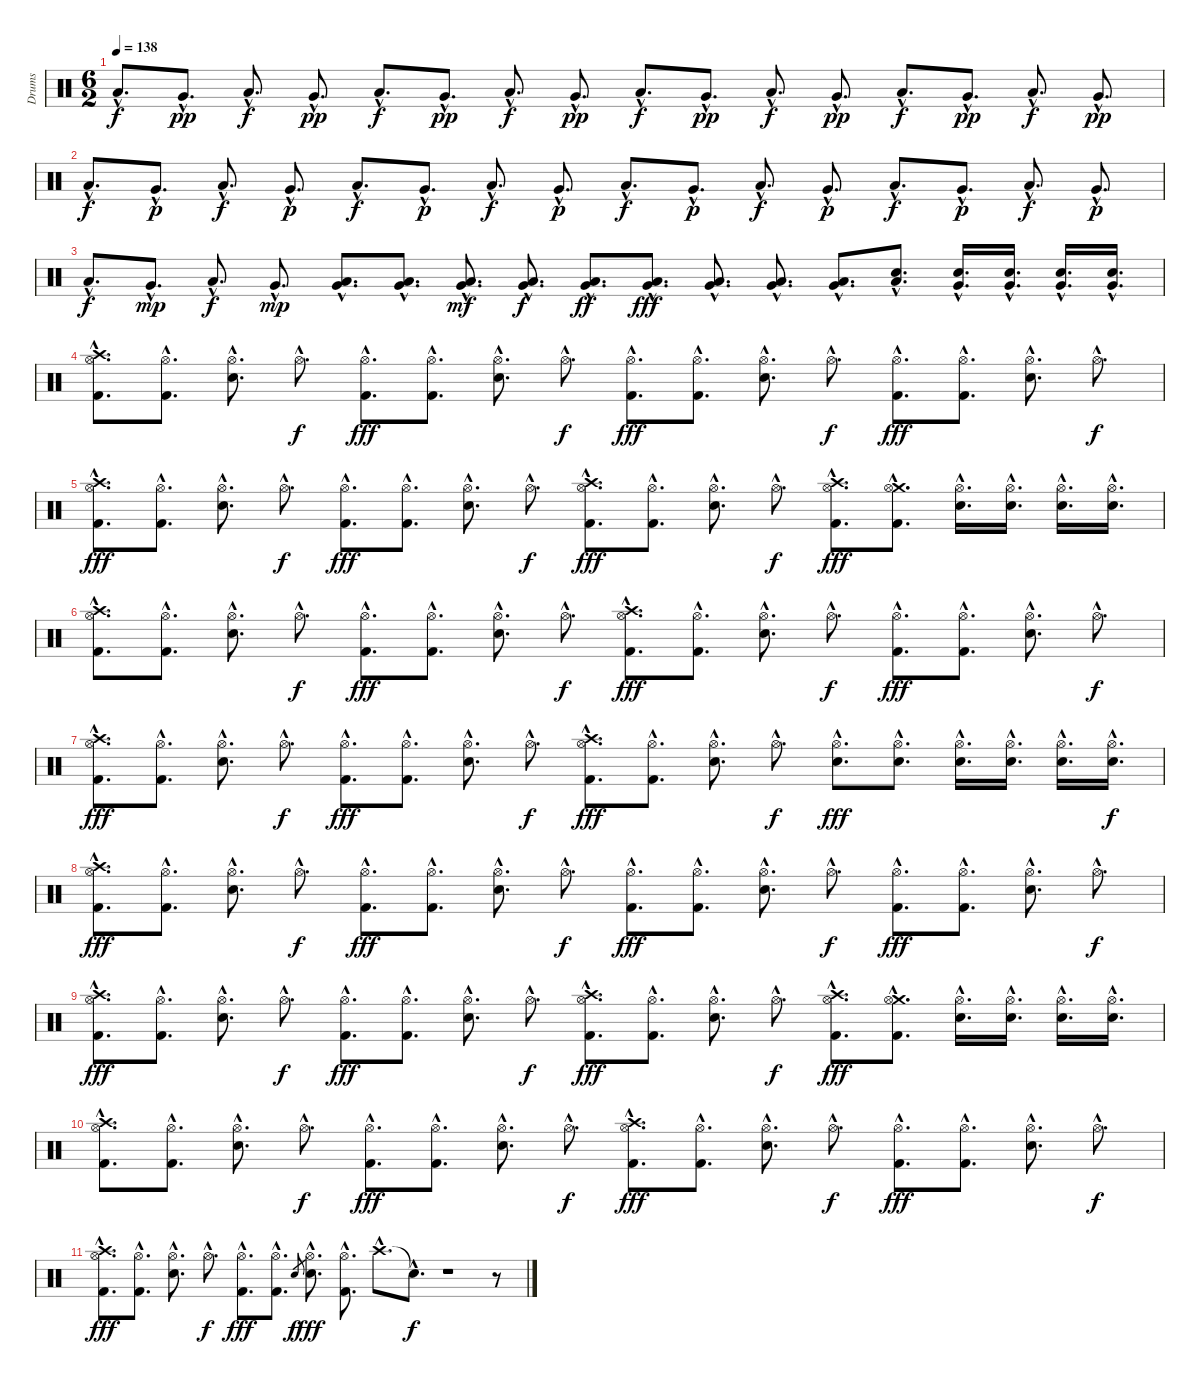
\track ("Drums" "Drums") {instrument percussion}
\staff {score}
\articulation defaults
\ts (6 2)
\tempo 138
\clef neutral
\ks c "Low Floor Tom (hit)"{hac}.8{d dy f} "Very Low Tom (hit)"{hac}.8{d dy pp} "Low Floor Tom (hit)"{hac}.8{d dy f} "Very Low Tom (hit)"{hac}.8{d dy pp} "Low Floor Tom (hit)"{hac}.8{d dy f} "Very Low Tom (hit)"{hac}.8{d dy pp} "Low Floor Tom (hit)"{hac}.8{d dy f} "Very Low Tom (hit)"{hac}.8{d dy pp} "Low Floor Tom (hit)"{hac}.8{d dy f} "Very Low Tom (hit)"{hac}.8{d dy pp} "Low Floor Tom (hit)"{hac}.8{d dy f} "Very Low Tom (hit)"{hac}.8{d dy pp} "Low Floor Tom (hit)"{hac}.8{d dy f} "Very Low Tom (hit)"{hac}.8{d dy pp} "Low Floor Tom (hit)"{hac}.8{d dy f} "Very Low Tom (hit)"{hac}.8{d dy pp}
|
"Low Floor Tom (hit)"{hac}.8{d dy f} "Very Low Tom (hit)"{hac}.8{d dy p} "Low Floor Tom (hit)"{hac}.8{d dy f} "Very Low Tom (hit)"{hac}.8{d dy p} "Low Floor Tom (hit)"{hac}.8{d dy f} "Very Low Tom (hit)"{hac}.8{d dy p} "Low Floor Tom (hit)"{hac}.8{d dy f} "Very Low Tom (hit)"{hac}.8{d dy p} "Low Floor Tom (hit)"{hac}.8{d dy f} "Very Low Tom (hit)"{hac}.8{d dy p} "Low Floor Tom (hit)"{hac}.8{d dy f} "Very Low Tom (hit)"{hac}.8{d dy p} "Low Floor Tom (hit)"{hac}.8{d dy f} "Very Low Tom (hit)"{hac}.8{d dy p} "Low Floor Tom (hit)"{hac}.8{d dy f} "Very Low Tom (hit)"{hac}.8{d dy p} |
"Low Floor Tom (hit)"{hac}.8{d dy f} "Very Low Tom (hit)"{hac}.8{d dy mp} "Low Floor Tom (hit)"{hac}.8{d dy f} "Very Low Tom (hit)"{hac}.8{d dy mp} ("Low Floor Tom (hit)"{hac} "Very Low Tom (hit)"{hac}).8{d} ("Low Floor Tom (hit)"{hac} "Very Low Tom (hit)"{hac}).8{d} ("Low Floor Tom (hit)"{hac} "Very Low Tom (hit)"{hac}).8{d dy mf} ("Low Floor Tom (hit)"{hac} "Very Low Tom (hit)"{hac}).8{d dy f} ("Low Floor Tom (hit)"{hac} "Very Low Tom (hit)"{hac}).8{d dy ff} ("Low Floor Tom (hit)"{hac} "Very Low Tom (hit)"{hac}).8{d dy fff} ("Low Floor Tom (hit)"{hac} "Very Low Tom (hit)"{hac}).8{d} ("Low Floor Tom (hit)"{hac} "Very Low Tom (hit)"{hac}).8{d} ("Low Floor Tom (hit)"{hac} "Very Low Tom (hit)"{hac}).8{d} ("Electric Snare (hit)"{hac} "Low Floor Tom (hit)"{hac}).8{d} ("Snare (hit) 2"{hac} "Very Low Tom (hit)"{hac}).16{d} ("Snare (hit) 2"{hac} "Very Low Tom (hit)"{hac}).16{d} ("Snare (hit) 2"{hac} "Very Low Tom (hit)"{hac}).16{d} ("Snare (hit) 2"{hac} "Very Low Tom (hit)"{hac}).16{d} |
("Crash high (hit)"{hac} "Kick (hit) 2"{hac} "Hi-Hat (open)"{hac}).8{d} ("Kick (hit) 2"{hac} "Hi-Hat (open)"{hac}).8{d} ("Electric Snare (hit)"{hac} "Hi-Hat (open)"{hac}).8{d} "Hi-Hat (open)"{hac}.8{d dy f} ("Kick (hit) 2"{hac} "Hi-Hat (open)"{hac}).8{d dy fff} ("Kick (hit) 2"{hac} "Hi-Hat (open)"{hac}).8{d} ("Electric Snare (hit)"{hac} "Hi-Hat (open)"{hac}).8{d} "Hi-Hat (open)"{hac}.8{d dy f} ("Kick (hit) 2"{hac} "Hi-Hat (open)"{hac}).8{d dy fff} ("Kick (hit) 2"{hac} "Hi-Hat (open)"{hac}).8{d} ("Electric Snare (hit)"{hac} "Hi-Hat (open)"{hac}).8{d} "Hi-Hat (open)"{hac}.8{d dy f} ("Kick (hit) 2"{hac} "Hi-Hat (open)"{hac}).8{d dy fff} ("Kick (hit) 2"{hac} "Hi-Hat (open)"{hac}).8{d} ("Electric Snare (hit)"{hac} "Hi-Hat (open)"{hac}).8{d} "Hi-Hat (open)"{hac}.8{d dy f} |
("Crash high (hit)"{hac} "Kick (hit) 2"{hac} "Hi-Hat (open)"{hac}).8{d dy fff} ("Kick (hit) 2"{hac} "Hi-Hat (open)"{hac}).8{d} ("Electric Snare (hit)"{hac} "Hi-Hat (open)"{hac}).8{d} "Hi-Hat (open)"{hac}.8{d dy f} ("Kick (hit) 2"{hac} "Hi-Hat (open)"{hac}).8{d dy fff} ("Kick (hit) 2"{hac} "Hi-Hat (open)"{hac}).8{d} ("Electric Snare (hit)"{hac} "Hi-Hat (open)"{hac}).8{d} "Hi-Hat (open)"{hac}.8{d dy f} ("Crash high (hit)"{hac} "Kick (hit) 2"{hac} "Hi-Hat (open)"{hac}).8{d dy fff} ("Kick (hit) 2"{hac} "Hi-Hat (open)"{hac}).8{d} ("Electric Snare (hit)"{hac} "Hi-Hat (open)"{hac}).8{d} "Hi-Hat (open)"{hac}.8{d dy f} ("Crash high (hit)"{hac} "Kick (hit) 2"{hac} "Hi-Hat (open)"{hac}).8{d dy fff} ("Crash medium (hit)"{hac} "Kick (hit) 2"{hac} "Hi-Hat (open)"{hac}).8{d} ("Electric Snare (hit)"{hac} "Hi-Hat (open)"{hac}).16{d} ("Electric Snare (hit)"{hac} "Hi-Hat (open)"{hac}).16{d} ("Electric Snare (hit)"{hac} "Hi-Hat (open)"{hac}).16{d} ("Electric Snare (hit)"{hac} "Hi-Hat (open)"{hac}).16{d} |
("Crash high (hit)"{hac} "Kick (hit) 2"{hac} "Hi-Hat (open)"{hac}).8{d} ("Kick (hit) 2"{hac} "Hi-Hat (open)"{hac}).8{d} ("Electric Snare (hit)"{hac} "Hi-Hat (open)"{hac}).8{d} "Hi-Hat (open)"{hac}.8{d dy f} ("Kick (hit) 2"{hac} "Hi-Hat (open)"{hac}).8{d dy fff} ("Kick (hit) 2"{hac} "Hi-Hat (open)"{hac}).8{d} ("Electric Snare (hit)"{hac} "Hi-Hat (open)"{hac}).8{d} "Hi-Hat (open)"{hac}.8{d dy f} ("Crash high (hit)"{hac} "Kick (hit) 2"{hac} "Hi-Hat (open)"{hac}).8{d dy fff} ("Kick (hit) 2"{hac} "Hi-Hat (open)"{hac}).8{d} ("Electric Snare (hit)"{hac} "Hi-Hat (open)"{hac}).8{d} "Hi-Hat (open)"{hac}.8{d dy f} ("Kick (hit) 2"{hac} "Hi-Hat (open)"{hac}).8{d dy fff} ("Kick (hit) 2"{hac} "Hi-Hat (open)"{hac}).8{d} ("Electric Snare (hit)"{hac} "Hi-Hat (open)"{hac}).8{d} "Hi-Hat (open)"{hac}.8{d dy f} |
("Crash high (hit)"{hac} "Kick (hit) 2"{hac} "Hi-Hat (open)"{hac}).8{d dy fff} ("Kick (hit) 2"{hac} "Hi-Hat (open)"{hac}).8{d} ("Electric Snare (hit)"{hac} "Hi-Hat (open)"{hac}).8{d} "Hi-Hat (open)"{hac}.8{d dy f} ("Kick (hit) 2"{hac} "Hi-Hat (open)"{hac}).8{d dy fff} ("Kick (hit) 2"{hac} "Hi-Hat (open)"{hac}).8{d} ("Electric Snare (hit)"{hac} "Hi-Hat (open)"{hac}).8{d} "Hi-Hat (open)"{hac}.8{d dy f} ("Crash high (hit)"{hac} "Kick (hit) 2"{hac} "Hi-Hat (open)"{hac}).8{d dy fff} ("Kick (hit) 2"{hac} "Hi-Hat (open)"{hac}).8{d} ("Electric Snare (hit)"{hac} "Hi-Hat (open)"{hac}).8{d} "Hi-Hat (open)"{hac}.8{d dy f} ("Electric Snare (hit)"{hac} "Hi-Hat (open)"{hac}).8{d dy fff} ("Electric Snare (hit)"{hac} "Hi-Hat (open)"{hac}).8{d} ("Electric Snare (hit)"{hac} "Hi-Hat (open)"{hac}).16{d} ("Electric Snare (hit)"{hac} "Hi-Hat (open)"{hac}).16{d} ("Electric Snare (hit)"{hac} "Hi-Hat (open)"{hac}).16{d} ("Electric Snare (hit)"{hac} "Hi-Hat (open)"{hac}).16{d dy f} |
("Crash high (hit)"{hac} "Kick (hit) 2"{hac} "Hi-Hat (open)"{hac}).8{d dy fff} ("Kick (hit) 2"{hac} "Hi-Hat (open)"{hac}).8{d} ("Electric Snare (hit)"{hac} "Hi-Hat (open)"{hac}).8{d} "Hi-Hat (open)"{hac}.8{d dy f} ("Kick (hit) 2"{hac} "Hi-Hat (open)"{hac}).8{d dy fff} ("Kick (hit) 2"{hac} "Hi-Hat (open)"{hac}).8{d} ("Electric Snare (hit)"{hac} "Hi-Hat (open)"{hac}).8{d} "Hi-Hat (open)"{hac}.8{d dy f} ("Kick (hit) 2"{hac} "Hi-Hat (open)"{hac}).8{d dy fff} ("Kick (hit) 2"{hac} "Hi-Hat (open)"{hac}).8{d} ("Electric Snare (hit)"{hac} "Hi-Hat (open)"{hac}).8{d} "Hi-Hat (open)"{hac}.8{d dy f} ("Kick (hit) 2"{hac} "Hi-Hat (open)"{hac}).8{d dy fff} ("Kick (hit) 2"{hac} "Hi-Hat (open)"{hac}).8{d} ("Electric Snare (hit)"{hac} "Hi-Hat (open)"{hac}).8{d} "Hi-Hat (open)"{hac}.8{d dy f} |
("Crash high (hit)"{hac} "Kick (hit) 2"{hac} "Hi-Hat (open)"{hac}).8{d dy fff} ("Kick (hit) 2"{hac} "Hi-Hat (open)"{hac}).8{d} ("Electric Snare (hit)"{hac} "Hi-Hat (open)"{hac}).8{d} "Hi-Hat (open)"{hac}.8{d dy f} ("Kick (hit) 2"{hac} "Hi-Hat (open)"{hac}).8{d dy fff} ("Kick (hit) 2"{hac} "Hi-Hat (open)"{hac}).8{d} ("Electric Snare (hit)"{hac} "Hi-Hat (open)"{hac}).8{d} "Hi-Hat (open)"{hac}.8{d dy f} ("Crash high (hit)"{hac} "Kick (hit) 2"{hac} "Hi-Hat (open)"{hac}).8{d dy fff} ("Kick (hit) 2"{hac} "Hi-Hat (open)"{hac}).8{d} ("Electric Snare (hit)"{hac} "Hi-Hat (open)"{hac}).8{d} "Hi-Hat (open)"{hac}.8{d dy f} ("Crash high (hit)"{hac} "Kick (hit) 2"{hac} "Hi-Hat (open)"{hac}).8{d dy fff} ("Crash medium (hit)"{hac} "Kick (hit) 2"{hac} "Hi-Hat (open)"{hac}).8{d} ("Electric Snare (hit)"{hac} "Hi-Hat (open)"{hac}).16{d} ("Electric Snare (hit)"{hac} "Hi-Hat (open)"{hac}).16{d} ("Electric Snare (hit)"{hac} "Hi-Hat (open)"{hac}).16{d} ("Electric Snare (hit)"{hac} "Hi-Hat (open)"{hac}).16{d} |
("Crash high (hit)"{hac} "Kick (hit) 2"{hac} "Hi-Hat (open)"{hac}).8{d} ("Kick (hit) 2"{hac} "Hi-Hat (open)"{hac}).8{d} ("Electric Snare (hit)"{hac} "Hi-Hat (open)"{hac}).8{d} "Hi-Hat (open)"{hac}.8{d dy f} ("Kick (hit) 2"{hac} "Hi-Hat (open)"{hac}).8{d dy fff} ("Kick (hit) 2"{hac} "Hi-Hat (open)"{hac}).8{d} ("Electric Snare (hit)"{hac} "Hi-Hat (open)"{hac}).8{d} "Hi-Hat (open)"{hac}.8{d dy f} ("Crash high (hit)"{hac} "Kick (hit) 2"{hac} "Hi-Hat (open)"{hac}).8{d dy fff} ("Kick (hit) 2"{hac} "Hi-Hat (open)"{hac}).8{d} ("Electric Snare (hit)"{hac} "Hi-Hat (open)"{hac}).8{d} "Hi-Hat (open)"{hac}.8{d dy f} ("Kick (hit) 2"{hac} "Hi-Hat (open)"{hac}).8{d dy fff} ("Kick (hit) 2"{hac} "Hi-Hat (open)"{hac}).8{d} ("Electric Snare (hit)"{hac} "Hi-Hat (open)"{hac}).8{d} "Hi-Hat (open)"{hac}.8{d dy f} |
("Crash high (hit)"{hac} "Kick (hit) 2"{hac} "Hi-Hat (open)"{hac}).8{d dy fff} ("Kick (hit) 2"{hac} "Hi-Hat (open)"{hac}).8{d} ("Electric Snare (hit)"{hac} "Hi-Hat (open)"{hac}).8{d} "Hi-Hat (open)"{hac}.8{d dy f} ("Kick (hit) 2"{hac} "Hi-Hat (open)"{hac}).8{d dy fff} ("Kick (hit) 2"{hac} "Hi-Hat (open)"{hac}).8{d} "Electric Snare (hit)".8{gr dy f} ("Electric Snare (hit)"{hac} "Hi-Hat (open)"{hac}).8{d dy fff} ("Kick (hit) 2"{hac} "Hi-Hat (open)"{hac}).8{d} "Crash high (hit)"{hac}.8{d} "Snare (hit)"{hac t}.8{d dy f} r.1 r.8
